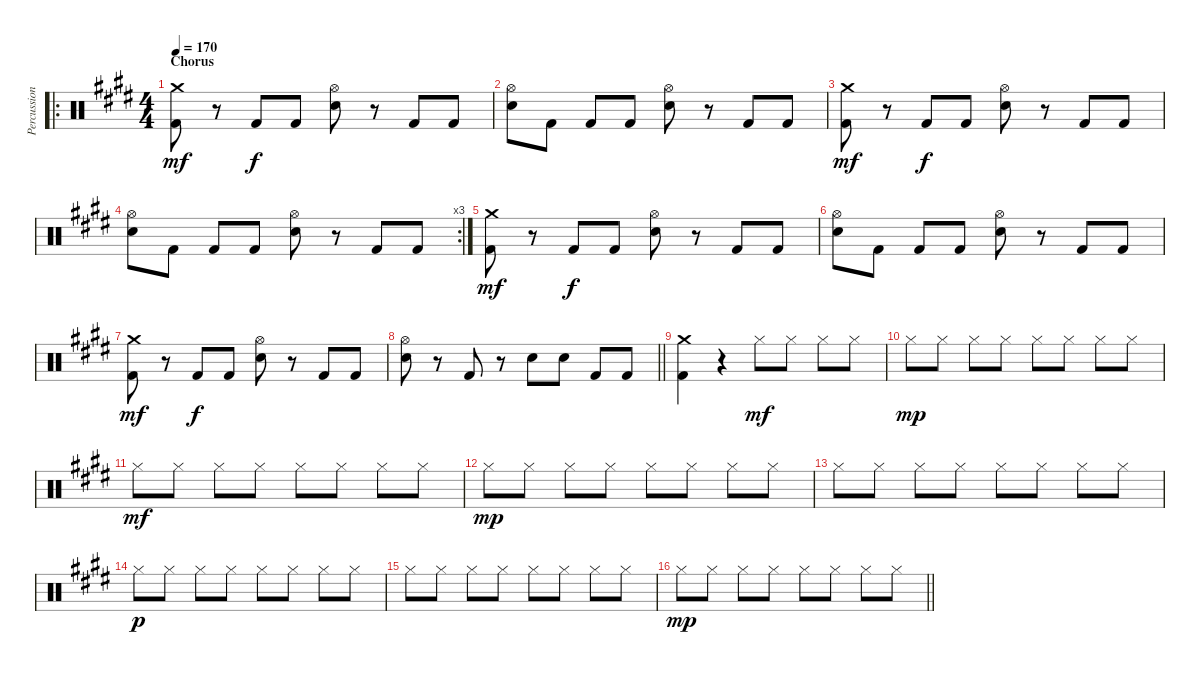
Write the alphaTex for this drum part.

\track ("Percussion" "Percussion") {instrument percussion}
\staff {score}
\articulation defaults
\ro
\ts (4 4)
\section ("" "Chorus")
\tempo 170
\clef neutral
\ks c#minor
("Crash medium (hit)" "Kick (hit) 2").8{dy mf} r.8 "Kick (hit) 2".8{dy f} "Kick (hit) 2".8 ("Hi-Hat (open)" "Snare (hit) 2").8 r.8 "Kick (hit) 2".8 "Kick (hit) 2".8 |
("Hi-Hat (open)" "Snare (hit) 2").8 "Kick (hit) 2".8 "Kick (hit) 2".8 "Kick (hit) 2".8 ("Hi-Hat (open)" "Snare (hit) 2").8 r.8 "Kick (hit) 2".8 "Kick (hit) 2".8 |
("Crash medium (hit)" "Kick (hit) 2").8{dy mf} r.8 "Kick (hit) 2".8{dy f} "Kick (hit) 2".8 ("Hi-Hat (open)" "Snare (hit) 2").8 r.8 "Kick (hit) 2".8 "Kick (hit) 2".8 |
\rc 3
("Hi-Hat (open)" "Snare (hit) 2").8 "Kick (hit) 2".8 "Kick (hit) 2".8 "Kick (hit) 2".8 ("Hi-Hat (open)" "Snare (hit) 2").8 r.8 "Kick (hit) 2".8 "Kick (hit) 2".8 |
("Crash medium (hit)" "Kick (hit) 2").8{dy mf} r.8 "Kick (hit) 2".8{dy f} "Kick (hit) 2".8 ("Hi-Hat (open)" "Snare (hit) 2").8 r.8 "Kick (hit) 2".8 "Kick (hit) 2".8 |
("Hi-Hat (open)" "Snare (hit) 2").8 "Kick (hit) 2".8 "Kick (hit) 2".8 "Kick (hit) 2".8 ("Hi-Hat (open)" "Snare (hit) 2").8 r.8 "Kick (hit) 2".8 "Kick (hit) 2".8 |
("Crash medium (hit)" "Kick (hit) 2").8{dy mf} r.8 "Kick (hit) 2".8{dy f} "Kick (hit) 2".8 ("Hi-Hat (open)" "Snare (hit) 2").8 r.8 "Kick (hit) 2".8 "Kick (hit) 2".8 |
\barLineRight lightlight
("Hi-Hat (open)" "Snare (hit) 2").8 r.8 "Kick (hit) 2".8 r.8 "Snare (hit) 2".8 "Snare (hit) 2".8 "Kick (hit) 2".8 "Kick (hit) 2".8 |
("Crash medium (hit)" "Kick (hit) 2").4 r.4 "Hi-Hat (closed)".8{dy mf} "Hi-Hat (closed)".8 "Hi-Hat (closed)".8 "Hi-Hat (closed)".8 |
"Hi-Hat (closed)".8{dy mp} "Hi-Hat (closed)".8 "Hi-Hat (closed)".8 "Hi-Hat (closed)".8 "Hi-Hat (closed)".8 "Hi-Hat (closed)".8 "Hi-Hat (closed)".8 "Hi-Hat (closed)".8 |
"Hi-Hat (closed)".8{dy mf} "Hi-Hat (closed)".8 "Hi-Hat (closed)".8 "Hi-Hat (closed)".8 "Hi-Hat (closed)".8 "Hi-Hat (closed)".8 "Hi-Hat (closed)".8 "Hi-Hat (closed)".8 |
"Hi-Hat (closed)".8{dy mp} "Hi-Hat (closed)".8 "Hi-Hat (closed)".8 "Hi-Hat (closed)".8 "Hi-Hat (closed)".8 "Hi-Hat (closed)".8 "Hi-Hat (closed)".8 "Hi-Hat (closed)".8 |
"Hi-Hat (closed)".8 "Hi-Hat (closed)".8 "Hi-Hat (closed)".8 "Hi-Hat (closed)".8 "Hi-Hat (closed)".8 "Hi-Hat (closed)".8 "Hi-Hat (closed)".8 "Hi-Hat (closed)".8 |
"Hi-Hat (closed)".8{dy p} "Hi-Hat (closed)".8 "Hi-Hat (closed)".8 "Hi-Hat (closed)".8 "Hi-Hat (closed)".8 "Hi-Hat (closed)".8 "Hi-Hat (closed)".8 "Hi-Hat (closed)".8 |
"Hi-Hat (closed)".8 "Hi-Hat (closed)".8 "Hi-Hat (closed)".8 "Hi-Hat (closed)".8 "Hi-Hat (closed)".8 "Hi-Hat (closed)".8 "Hi-Hat (closed)".8 "Hi-Hat (closed)".8 |
\barLineRight lightlight "Hi-Hat (closed)".8{dy mp} "Hi-Hat (closed)".8 "Hi-Hat (closed)".8 "Hi-Hat (closed)".8 "Hi-Hat (closed)".8 "Hi-Hat (closed)".8 "Hi-Hat (closed)".8 "Hi-Hat (closed)".8
